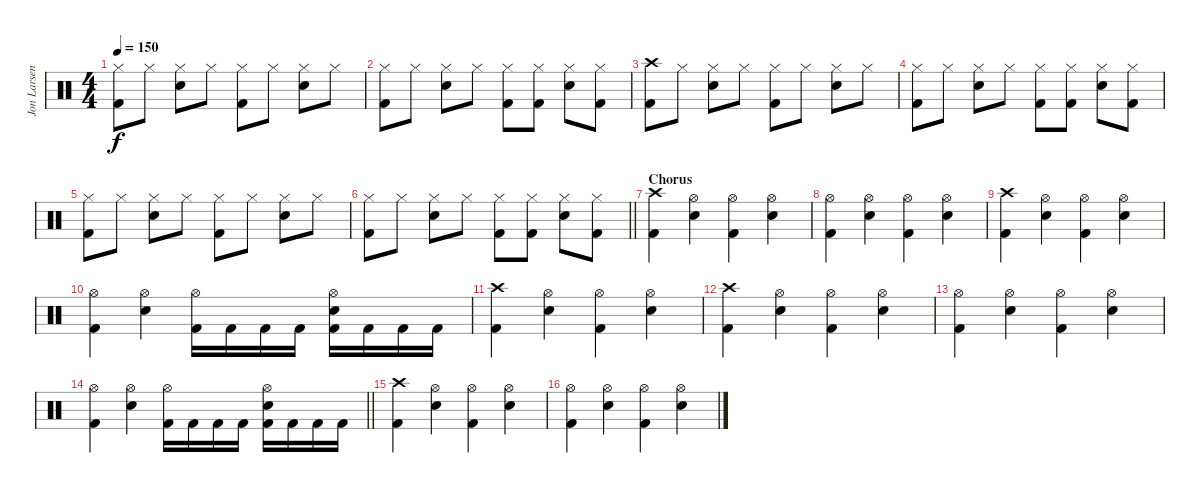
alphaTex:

\track ("Jon Larsen" "Jon Larsen") {instrument percussion bank 10}
\staff {score}
\articulation defaults
\ts (4 4)
\tempo 150
\clef neutral
\ks c
("Hi-Hat (closed)" "Kick (hit) 2").8{dy f} "Hi-Hat (closed)".8 ("Hi-Hat (closed)" "Electric Snare (hit)").8 "Hi-Hat (closed)".8 ("Hi-Hat (closed)" "Kick (hit) 2").8 "Hi-Hat (closed)".8 ("Hi-Hat (closed)" "Electric Snare (hit)").8 "Hi-Hat (closed)".8 |
("Hi-Hat (closed)" "Kick (hit) 2").8 "Hi-Hat (closed)".8 ("Hi-Hat (closed)" "Electric Snare (hit)").8 "Hi-Hat (closed)".8 ("Hi-Hat (closed)" "Kick (hit) 2").8 ("Hi-Hat (closed)" "Kick (hit) 2").8 ("Hi-Hat (closed)" "Electric Snare (hit)").8 ("Hi-Hat (closed)" "Kick (hit) 2").8 |
("Crash high (hit)" "Kick (hit) 2").8 "Hi-Hat (closed)".8 ("Hi-Hat (closed)" "Electric Snare (hit)").8 "Hi-Hat (closed)".8 ("Hi-Hat (closed)" "Kick (hit) 2").8 "Hi-Hat (closed)".8 ("Hi-Hat (closed)" "Electric Snare (hit)").8 "Hi-Hat (closed)".8 |
("Hi-Hat (closed)" "Kick (hit) 2").8 "Hi-Hat (closed)".8 ("Hi-Hat (closed)" "Electric Snare (hit)").8 "Hi-Hat (closed)".8 ("Hi-Hat (closed)" "Kick (hit) 2").8 ("Hi-Hat (closed)" "Kick (hit) 2").8 ("Hi-Hat (closed)" "Electric Snare (hit)").8 ("Hi-Hat (closed)" "Kick (hit) 2").8 |
("Hi-Hat (closed)" "Kick (hit) 2").8 "Hi-Hat (closed)".8 ("Hi-Hat (closed)" "Electric Snare (hit)").8 "Hi-Hat (closed)".8 ("Hi-Hat (closed)" "Kick (hit) 2").8 "Hi-Hat (closed)".8 ("Hi-Hat (closed)" "Electric Snare (hit)").8 "Hi-Hat (closed)".8 |
\barLineRight lightlight
("Hi-Hat (closed)" "Kick (hit) 2").8 "Hi-Hat (closed)".8 ("Hi-Hat (closed)" "Electric Snare (hit)").8 "Hi-Hat (closed)".8 ("Hi-Hat (closed)" "Kick (hit) 2").8 ("Hi-Hat (closed)" "Kick (hit) 2").8 ("Hi-Hat (closed)" "Electric Snare (hit)").8 ("Hi-Hat (closed)" "Kick (hit) 2").8 |
\section ("" "Chorus")
("Crash high (hit)" "Kick (hit) 2").4 ("Hi-Hat (open)" "Electric Snare (hit)").4 ("Hi-Hat (open)" "Kick (hit) 2").4 ("Hi-Hat (open)" "Electric Snare (hit)").4 |
("Hi-Hat (open)" "Kick (hit) 2").4 ("Hi-Hat (open)" "Electric Snare (hit)").4 ("Hi-Hat (open)" "Kick (hit) 2").4 ("Hi-Hat (open)" "Electric Snare (hit)").4 |
("Crash high (hit)" "Kick (hit) 2").4 ("Hi-Hat (open)" "Electric Snare (hit)").4 ("Hi-Hat (open)" "Kick (hit) 2").4 ("Hi-Hat (open)" "Electric Snare (hit)").4 |
("Hi-Hat (open)" "Kick (hit) 2").4 ("Hi-Hat (open)" "Electric Snare (hit)").4 ("Hi-Hat (open)" "Kick (hit) 2").16 "Kick (hit) 2".16 "Kick (hit) 2".16 "Kick (hit) 2".16 ("Hi-Hat (open)" "Electric Snare (hit)" "Kick (hit) 2").16 "Kick (hit) 2".16 "Kick (hit) 2".16 "Kick (hit) 2".16 |
("Crash high (hit)" "Kick (hit) 2").4 ("Hi-Hat (open)" "Electric Snare (hit)").4 ("Hi-Hat (open)" "Kick (hit) 2").4 ("Hi-Hat (open)" "Electric Snare (hit)").4 |
("Crash high (hit)" "Kick (hit) 2").4 ("Hi-Hat (open)" "Electric Snare (hit)").4 ("Hi-Hat (open)" "Kick (hit) 2").4 ("Hi-Hat (open)" "Electric Snare (hit)").4 |
("Hi-Hat (open)" "Kick (hit) 2").4 ("Hi-Hat (open)" "Electric Snare (hit)").4 ("Hi-Hat (open)" "Kick (hit) 2").4 ("Hi-Hat (open)" "Electric Snare (hit)").4 |
\barLineRight lightlight
("Hi-Hat (open)" "Kick (hit) 2").4 ("Hi-Hat (open)" "Electric Snare (hit)").4 ("Hi-Hat (open)" "Kick (hit) 2").16 "Kick (hit) 2".16 "Kick (hit) 2".16 "Kick (hit) 2".16 ("Hi-Hat (open)" "Electric Snare (hit)" "Kick (hit) 2").16 "Kick (hit) 2".16 "Kick (hit) 2".16 "Kick (hit) 2".16 |
("Crash high (hit)" "Kick (hit) 2").4 ("Hi-Hat (open)" "Electric Snare (hit)").4 ("Hi-Hat (open)" "Kick (hit) 2").4 ("Hi-Hat (open)" "Electric Snare (hit)").4 |
("Hi-Hat (open)" "Kick (hit) 2").4 ("Hi-Hat (open)" "Electric Snare (hit)").4 ("Hi-Hat (open)" "Kick (hit) 2").4 ("Hi-Hat (open)" "Electric Snare (hit)").4
